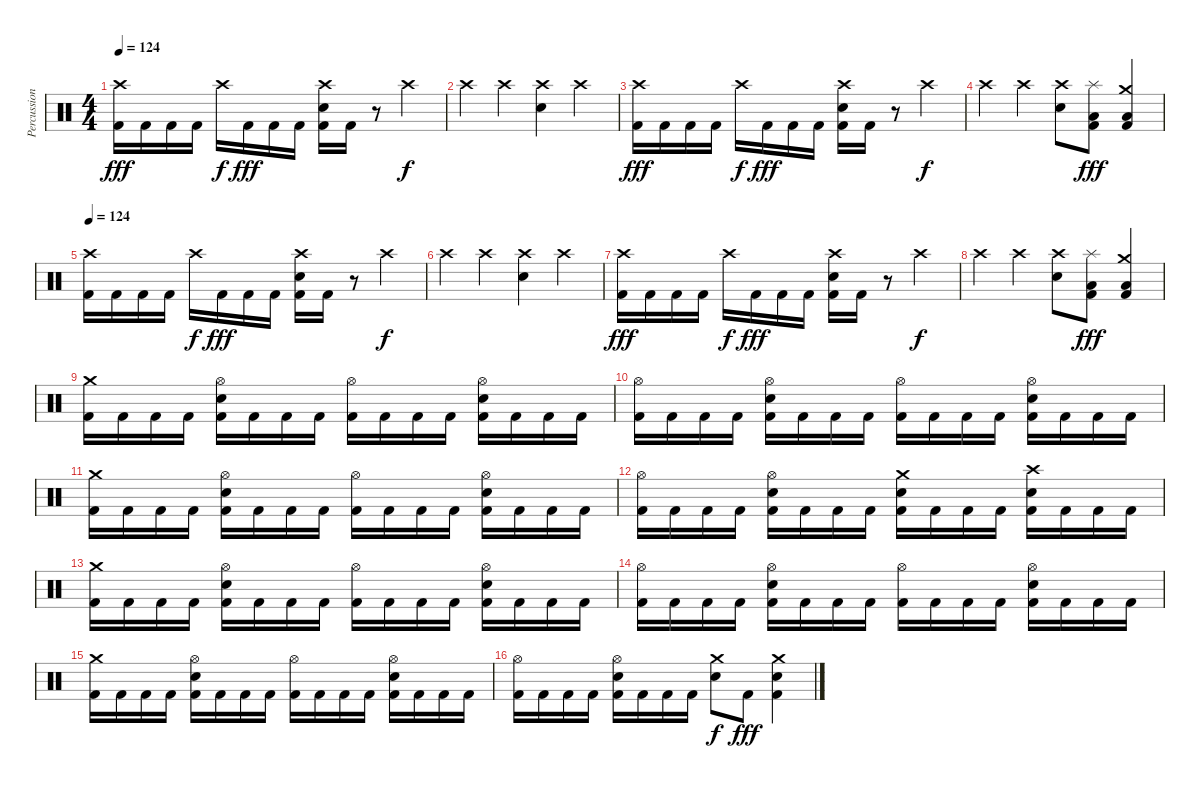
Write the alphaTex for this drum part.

\track ("Percussion" "Percussion") {instrument percussion}
\staff {score}
\articulation defaults
\ts (4 4)
\tempo 124
\clef neutral
\ks c
("Crash high (hit)" "Kick (hit) 2").16{dy fff} "Kick (hit) 2".16 "Kick (hit) 2".16 "Kick (hit) 2".16 "Crash high (hit)".16{dy f} "Kick (hit) 2".16{dy fff} "Kick (hit) 2".16 "Kick (hit) 2".16 ("Crash high (hit)" "Snare (hit) 2" "Kick (hit) 2").16 "Kick (hit) 2".16 r.8 "Crash high (hit)".4{dy f} |
"Crash high (hit)".4 "Crash high (hit)".4 ("Crash high (hit)" "Snare (hit) 2").4 "Crash high (hit)".4 |
("Crash high (hit)" "Kick (hit) 2").16{dy fff} "Kick (hit) 2".16 "Kick (hit) 2".16 "Kick (hit) 2".16 "Crash high (hit)".16{dy f} "Kick (hit) 2".16{dy fff} "Kick (hit) 2".16 "Kick (hit) 2".16 ("Crash high (hit)" "Snare (hit) 2" "Kick (hit) 2").16 "Kick (hit) 2".16 r.8 "Crash high (hit)".4{dy f} |
"Crash high (hit)".4 "Crash high (hit)".4 ("Crash high (hit)" "Snare (hit) 2").8 ("Splash (hit)" "Low Tom (hit)" "Kick (hit) 2").8{dy fff} ("Crash medium (hit)" "Low Floor Tom (hit)" "Kick (hit) 2").4 |
\tempo 124
("Crash high (hit)" "Kick (hit) 2").16 "Kick (hit) 2".16 "Kick (hit) 2".16 "Kick (hit) 2".16 "Crash high (hit)".16{dy f} "Kick (hit) 2".16{dy fff} "Kick (hit) 2".16 "Kick (hit) 2".16 ("Crash high (hit)" "Snare (hit) 2" "Kick (hit) 2").16 "Kick (hit) 2".16 r.8 "Crash high (hit)".4{dy f} |
"Crash high (hit)".4 "Crash high (hit)".4 ("Crash high (hit)" "Snare (hit) 2").4 "Crash high (hit)".4 |
("Crash high (hit)" "Kick (hit) 2").16{dy fff} "Kick (hit) 2".16 "Kick (hit) 2".16 "Kick (hit) 2".16 "Crash high (hit)".16{dy f} "Kick (hit) 2".16{dy fff} "Kick (hit) 2".16 "Kick (hit) 2".16 ("Crash high (hit)" "Snare (hit) 2" "Kick (hit) 2").16 "Kick (hit) 2".16 r.8 "Crash high (hit)".4{dy f} |
"Crash high (hit)".4 "Crash high (hit)".4 ("Crash high (hit)" "Snare (hit) 2").8 ("Splash (hit)" "Low Tom (hit)" "Kick (hit) 2").8{dy fff} ("Crash medium (hit)" "Low Floor Tom (hit)" "Kick (hit) 2").4 |
("Crash medium (hit)" "Kick (hit) 2").16 "Kick (hit) 2".16 "Kick (hit) 2".16 "Kick (hit) 2".16 ("Hi-Hat (open)" "Snare (hit) 2" "Kick (hit) 2").16 "Kick (hit) 2".16 "Kick (hit) 2".16 "Kick (hit) 2".16 ("Hi-Hat (open)" "Kick (hit) 2").16 "Kick (hit) 2".16 "Kick (hit) 2".16 "Kick (hit) 2".16 ("Hi-Hat (open)" "Snare (hit) 2" "Kick (hit) 2").16 "Kick (hit) 2".16 "Kick (hit) 2".16 "Kick (hit) 2".16 |
("Hi-Hat (open)" "Kick (hit) 2").16 "Kick (hit) 2".16 "Kick (hit) 2".16 "Kick (hit) 2".16 ("Hi-Hat (open)" "Snare (hit) 2" "Kick (hit) 2").16 "Kick (hit) 2".16 "Kick (hit) 2".16 "Kick (hit) 2".16 ("Hi-Hat (open)" "Kick (hit) 2").16 "Kick (hit) 2".16 "Kick (hit) 2".16 "Kick (hit) 2".16 ("Hi-Hat (open)" "Snare (hit) 2" "Kick (hit) 2").16 "Kick (hit) 2".16 "Kick (hit) 2".16 "Kick (hit) 2".16 |
("Crash medium (hit)" "Kick (hit) 2").16 "Kick (hit) 2".16 "Kick (hit) 2".16 "Kick (hit) 2".16 ("Hi-Hat (open)" "Snare (hit) 2" "Kick (hit) 2").16 "Kick (hit) 2".16 "Kick (hit) 2".16 "Kick (hit) 2".16 ("Hi-Hat (open)" "Kick (hit) 2").16 "Kick (hit) 2".16 "Kick (hit) 2".16 "Kick (hit) 2".16 ("Hi-Hat (open)" "Snare (hit) 2" "Kick (hit) 2").16 "Kick (hit) 2".16 "Kick (hit) 2".16 "Kick (hit) 2".16 |
("Hi-Hat (open)" "Kick (hit) 2").16 "Kick (hit) 2".16 "Kick (hit) 2".16 "Kick (hit) 2".16 ("Hi-Hat (open)" "Snare (hit) 2" "Kick (hit) 2").16 "Kick (hit) 2".16 "Kick (hit) 2".16 "Kick (hit) 2".16 ("Crash medium (hit)" "Snare (hit) 2" "Kick (hit) 2").16 "Kick (hit) 2".16 "Kick (hit) 2".16 "Kick (hit) 2".16 ("Crash high (hit)" "Snare (hit) 2" "Kick (hit) 2").16 "Kick (hit) 2".16 "Kick (hit) 2".16 "Kick (hit) 2".16 |
("Crash medium (hit)" "Kick (hit) 2").16 "Kick (hit) 2".16 "Kick (hit) 2".16 "Kick (hit) 2".16 ("Hi-Hat (open)" "Snare (hit) 2" "Kick (hit) 2").16 "Kick (hit) 2".16 "Kick (hit) 2".16 "Kick (hit) 2".16 ("Hi-Hat (open)" "Kick (hit) 2").16 "Kick (hit) 2".16 "Kick (hit) 2".16 "Kick (hit) 2".16 ("Hi-Hat (open)" "Snare (hit) 2" "Kick (hit) 2").16 "Kick (hit) 2".16 "Kick (hit) 2".16 "Kick (hit) 2".16 |
("Hi-Hat (open)" "Kick (hit) 2").16 "Kick (hit) 2".16 "Kick (hit) 2".16 "Kick (hit) 2".16 ("Hi-Hat (open)" "Snare (hit) 2" "Kick (hit) 2").16 "Kick (hit) 2".16 "Kick (hit) 2".16 "Kick (hit) 2".16 ("Hi-Hat (open)" "Kick (hit) 2").16 "Kick (hit) 2".16 "Kick (hit) 2".16 "Kick (hit) 2".16 ("Hi-Hat (open)" "Snare (hit) 2" "Kick (hit) 2").16 "Kick (hit) 2".16 "Kick (hit) 2".16 "Kick (hit) 2".16 |
("Crash medium (hit)" "Kick (hit) 2").16 "Kick (hit) 2".16 "Kick (hit) 2".16 "Kick (hit) 2".16 ("Hi-Hat (open)" "Snare (hit) 2" "Kick (hit) 2").16 "Kick (hit) 2".16 "Kick (hit) 2".16 "Kick (hit) 2".16 ("Hi-Hat (open)" "Kick (hit) 2").16 "Kick (hit) 2".16 "Kick (hit) 2".16 "Kick (hit) 2".16 ("Hi-Hat (open)" "Snare (hit) 2" "Kick (hit) 2").16 "Kick (hit) 2".16 "Kick (hit) 2".16 "Kick (hit) 2".16 |
("Hi-Hat (open)" "Kick (hit) 2").16 "Kick (hit) 2".16 "Kick (hit) 2".16 "Kick (hit) 2".16 ("Hi-Hat (open)" "Snare (hit) 2" "Kick (hit) 2").16 "Kick (hit) 2".16 "Kick (hit) 2".16 "Kick (hit) 2".16 ("Crash medium (hit)" "Snare (hit) 2").8{dy f} "Kick (hit) 2".8{dy fff} ("Crash medium (hit)" "Snare (hit) 2" "Kick (hit) 2").4
